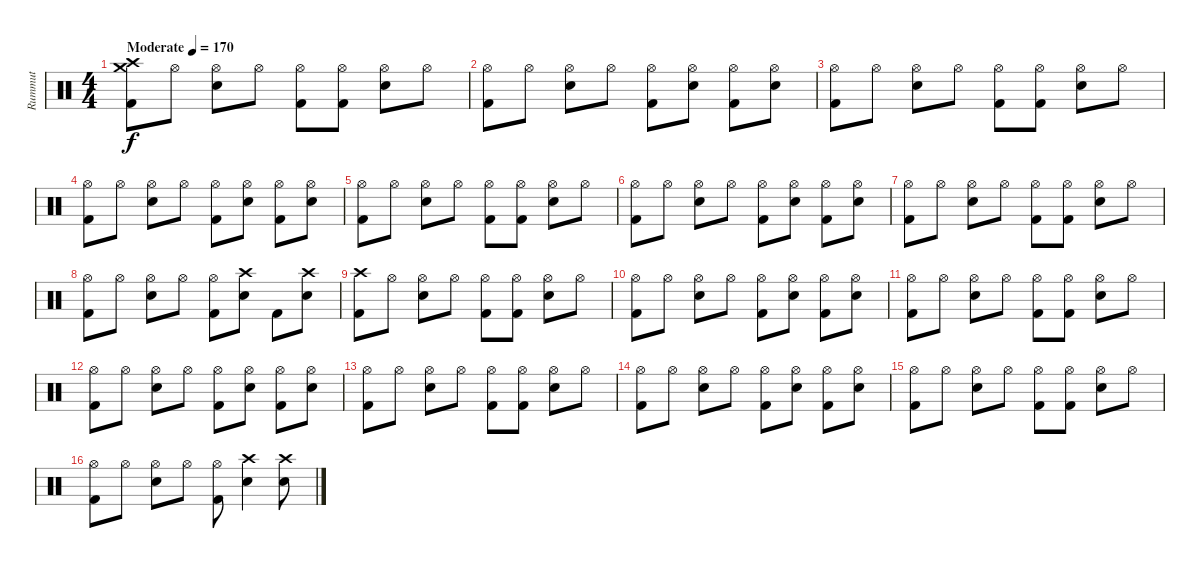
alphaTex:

\track ("Rummut" "Rummut") {instrument percussion}
\staff {score}
\articulation defaults
\ts (4 4)
\tempo (170 "Moderate")
\clef neutral
\ks c
("Crash high (hit)" "Crash medium (hit)" "Kick (hit) 2").8{dy f} "Hi-Hat (open)".8 ("Hi-Hat (open)" "Electric Snare (hit)").8 "Hi-Hat (open)".8 ("Hi-Hat (open)" "Kick (hit) 2").8 ("Hi-Hat (open)" "Kick (hit) 2").8 ("Hi-Hat (open)" "Electric Snare (hit)").8 "Hi-Hat (open)".8 |
("Hi-Hat (open)" "Kick (hit) 2").8 "Hi-Hat (open)".8 ("Hi-Hat (open)" "Electric Snare (hit)").8 "Hi-Hat (open)".8 ("Hi-Hat (open)" "Kick (hit) 2").8 ("Hi-Hat (open)" "Electric Snare (hit)").8 ("Hi-Hat (open)" "Kick (hit) 2").8 ("Hi-Hat (open)" "Electric Snare (hit)").8 |
("Hi-Hat (open)" "Kick (hit) 2").8 "Hi-Hat (open)".8 ("Hi-Hat (open)" "Electric Snare (hit)").8 "Hi-Hat (open)".8 ("Hi-Hat (open)" "Kick (hit) 2").8 ("Hi-Hat (open)" "Kick (hit) 2").8 ("Hi-Hat (open)" "Electric Snare (hit)").8 "Hi-Hat (open)".8 |
("Hi-Hat (open)" "Kick (hit) 2").8 "Hi-Hat (open)".8 ("Hi-Hat (open)" "Electric Snare (hit)").8 "Hi-Hat (open)".8 ("Hi-Hat (open)" "Kick (hit) 2").8 ("Hi-Hat (open)" "Electric Snare (hit)").8 ("Hi-Hat (open)" "Kick (hit) 2").8 ("Hi-Hat (open)" "Electric Snare (hit)").8 |
("Hi-Hat (open)" "Kick (hit) 2").8 "Hi-Hat (open)".8 ("Hi-Hat (open)" "Electric Snare (hit)").8 "Hi-Hat (open)".8 ("Hi-Hat (open)" "Kick (hit) 2").8 ("Hi-Hat (open)" "Kick (hit) 2").8 ("Hi-Hat (open)" "Electric Snare (hit)").8 "Hi-Hat (open)".8 |
("Hi-Hat (open)" "Kick (hit) 2").8 "Hi-Hat (open)".8 ("Hi-Hat (open)" "Electric Snare (hit)").8 "Hi-Hat (open)".8 ("Hi-Hat (open)" "Kick (hit) 2").8 ("Hi-Hat (open)" "Electric Snare (hit)").8 ("Hi-Hat (open)" "Kick (hit) 2").8 ("Hi-Hat (open)" "Electric Snare (hit)").8 |
("Hi-Hat (open)" "Kick (hit) 2").8 "Hi-Hat (open)".8 ("Hi-Hat (open)" "Electric Snare (hit)").8 "Hi-Hat (open)".8 ("Hi-Hat (open)" "Kick (hit) 2").8 ("Hi-Hat (open)" "Kick (hit) 2").8 ("Hi-Hat (open)" "Electric Snare (hit)").8 "Hi-Hat (open)".8 |
("Hi-Hat (open)" "Kick (hit) 2").8 "Hi-Hat (open)".8 ("Hi-Hat (open)" "Electric Snare (hit)").8 "Hi-Hat (open)".8 ("Hi-Hat (open)" "Kick (hit) 2").8 ("Crash high (hit)" "Electric Snare (hit)").8 "Kick (hit) 2".8 ("Crash high (hit)" "Electric Snare (hit)").8 |
("Crash high (hit)" "Kick (hit) 2").8 "Hi-Hat (open)".8 ("Hi-Hat (open)" "Electric Snare (hit)").8 "Hi-Hat (open)".8 ("Hi-Hat (open)" "Kick (hit) 2").8 ("Hi-Hat (open)" "Kick (hit) 2").8 ("Hi-Hat (open)" "Electric Snare (hit)").8 "Hi-Hat (open)".8 |
("Hi-Hat (open)" "Kick (hit) 2").8 "Hi-Hat (open)".8 ("Hi-Hat (open)" "Electric Snare (hit)").8 "Hi-Hat (open)".8 ("Hi-Hat (open)" "Kick (hit) 2").8 ("Hi-Hat (open)" "Electric Snare (hit)").8 ("Hi-Hat (open)" "Kick (hit) 2").8 ("Hi-Hat (open)" "Electric Snare (hit)").8 |
("Hi-Hat (open)" "Kick (hit) 2").8 "Hi-Hat (open)".8 ("Hi-Hat (open)" "Electric Snare (hit)").8 "Hi-Hat (open)".8 ("Hi-Hat (open)" "Kick (hit) 2").8 ("Hi-Hat (open)" "Kick (hit) 2").8 ("Hi-Hat (open)" "Electric Snare (hit)").8 "Hi-Hat (open)".8 |
("Hi-Hat (open)" "Kick (hit) 2").8 "Hi-Hat (open)".8 ("Hi-Hat (open)" "Electric Snare (hit)").8 "Hi-Hat (open)".8 ("Hi-Hat (open)" "Kick (hit) 2").8 ("Hi-Hat (open)" "Electric Snare (hit)").8 ("Hi-Hat (open)" "Kick (hit) 2").8 ("Hi-Hat (open)" "Electric Snare (hit)").8 |
("Hi-Hat (open)" "Kick (hit) 2").8 "Hi-Hat (open)".8 ("Hi-Hat (open)" "Electric Snare (hit)").8 "Hi-Hat (open)".8 ("Hi-Hat (open)" "Kick (hit) 2").8 ("Hi-Hat (open)" "Kick (hit) 2").8 ("Hi-Hat (open)" "Electric Snare (hit)").8 "Hi-Hat (open)".8 |
("Hi-Hat (open)" "Kick (hit) 2").8 "Hi-Hat (open)".8 ("Hi-Hat (open)" "Electric Snare (hit)").8 "Hi-Hat (open)".8 ("Hi-Hat (open)" "Kick (hit) 2").8 ("Hi-Hat (open)" "Electric Snare (hit)").8 ("Hi-Hat (open)" "Kick (hit) 2").8 ("Hi-Hat (open)" "Electric Snare (hit)").8 |
("Hi-Hat (open)" "Kick (hit) 2").8 "Hi-Hat (open)".8 ("Hi-Hat (open)" "Electric Snare (hit)").8 "Hi-Hat (open)".8 ("Hi-Hat (open)" "Kick (hit) 2").8 ("Hi-Hat (open)" "Kick (hit) 2").8 ("Hi-Hat (open)" "Electric Snare (hit)").8 "Hi-Hat (open)".8 |
("Hi-Hat (open)" "Kick (hit) 2").8 "Hi-Hat (open)".8 ("Hi-Hat (open)" "Electric Snare (hit)").8 "Hi-Hat (open)".8 ("Hi-Hat (open)" "Kick (hit) 2").8 ("Crash high (hit)" "Electric Snare (hit)").4 ("Crash high (hit)" "Electric Snare (hit)").8
